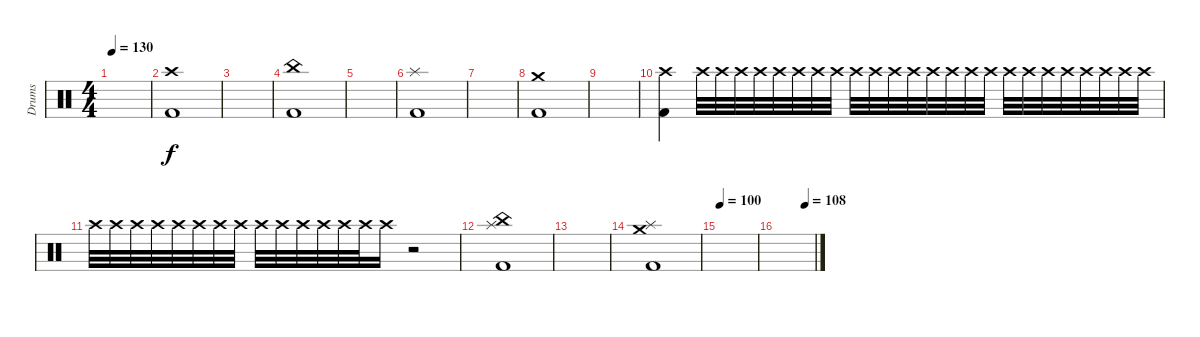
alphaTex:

\track ("Drums" "Drums") {instrument percussion}
\staff
\articulation defaults
\ts (4 4)
\tempo 130
\clef neutral
\ks c
|
("Crash high (hit)" "Kick (hit) 2").1 |
|
("China (hit)" "Kick (hit) 2").1 |
|
("Splash (hit)" "Kick (hit) 2").1 |
|
("Crash medium (hit)" "Kick (hit) 2").1 |
|
("Crash high (hit)" "Kick (hit) 2").4 "Crash high (hit)".32{volume 6} "Crash high (hit)".32{volume 16} "Crash high (hit)".32 "Crash high (hit)".32 "Crash high (hit)".32 "Crash high (hit)".32 "Crash high (hit)".32 "Crash high (hit)".32 "Crash high (hit)".32 "Crash high (hit)".32 "Crash high (hit)".32 "Crash high (hit)".32 "Crash high (hit)".32 "Crash high (hit)".32 "Crash high (hit)".32 "Crash high (hit)".32 "Crash high (hit)".32 "Crash high (hit)".32 "Crash high (hit)".32 "Crash high (hit)".32 "Crash high (hit)".32 "Crash high (hit)".32 "Crash high (hit)".32 "Crash high (hit)".32 |
"Crash high (hit)".32 "Crash high (hit)".32 "Crash high (hit)".32 "Crash high (hit)".32 "Crash high (hit)".32 "Crash high (hit)".32 "Crash high (hit)".32 "Crash high (hit)".32 "Crash high (hit)".32 "Crash high (hit)".32 "Crash high (hit)".32 "Crash high (hit)".32 "Crash high (hit)".32 "Crash high (hit)".32 "Crash high (hit)".16 r.2 |
("Splash (hit)" "China (hit)" "Kick (hit) 2").1 |
|
("Crash medium (hit)" "Splash (hit)" "Kick (hit) 2").1 |
\tempo 100
|
\tempo (108 0.75)
